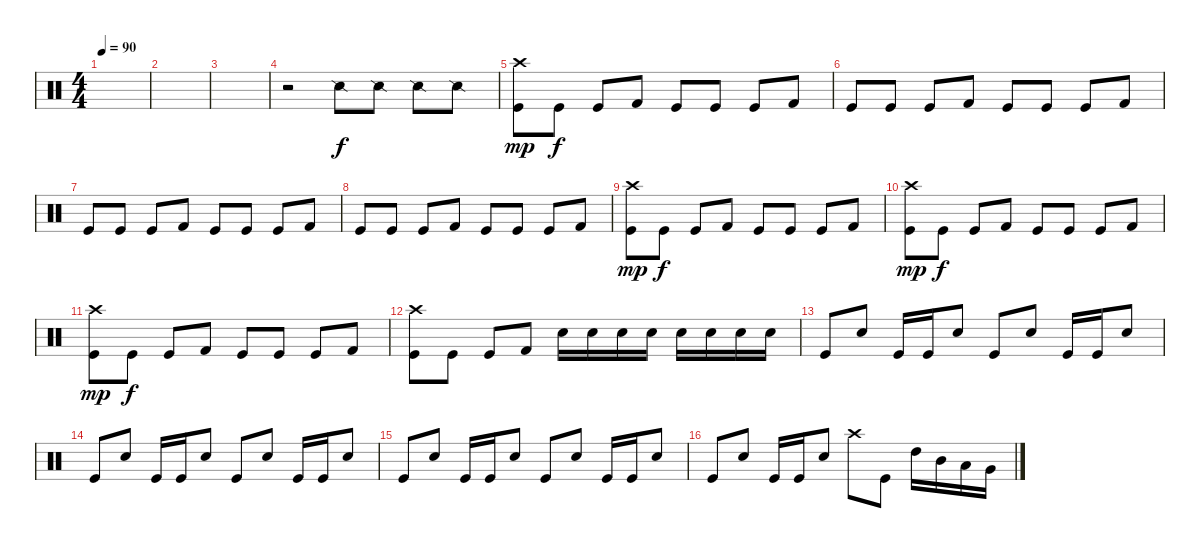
\track "" {instrument percussion}
\staff {score}
\articulation defaults
\ts (4 4)
\tempo 90
\clef neutral
\ks c
|
|
|
r.2 "Snare (side stick) 2".8 "Snare (side stick) 2".8 "Snare (side stick) 2".8 "Snare (side stick) 2".8 |
("Crash high (hit)" "Kick (hit)").8{dy mp} "Kick (hit)".8{dy f} "Kick (hit)".8 "Kick (hit) 2".8 "Kick (hit)".8 "Kick (hit)".8 "Kick (hit)".8 "Kick (hit) 2".8 |
"Kick (hit)".8 "Kick (hit)".8 "Kick (hit)".8 "Kick (hit) 2".8 "Kick (hit)".8 "Kick (hit)".8 "Kick (hit)".8 "Kick (hit) 2".8 |
"Kick (hit)".8 "Kick (hit)".8 "Kick (hit)".8 "Kick (hit) 2".8 "Kick (hit)".8 "Kick (hit)".8 "Kick (hit)".8 "Kick (hit) 2".8 |
"Kick (hit)".8 "Kick (hit)".8 "Kick (hit)".8 "Kick (hit) 2".8 "Kick (hit)".8 "Kick (hit)".8 "Kick (hit)".8 "Kick (hit) 2".8 |
("Crash high (hit)" "Kick (hit)").8{dy mp} "Kick (hit)".8{dy f} "Kick (hit)".8 "Kick (hit) 2".8 "Kick (hit)".8 "Kick (hit)".8 "Kick (hit)".8 "Kick (hit) 2".8 |
("Crash high (hit)" "Kick (hit)").8{dy mp} "Kick (hit)".8{dy f} "Kick (hit)".8 "Kick (hit) 2".8 "Kick (hit)".8 "Kick (hit)".8 "Kick (hit)".8 "Kick (hit) 2".8 |
("Crash high (hit)" "Kick (hit)").8{dy mp} "Kick (hit)".8{dy f} "Kick (hit)".8 "Kick (hit) 2".8 "Kick (hit)".8 "Kick (hit)".8 "Kick (hit)".8 "Kick (hit) 2".8 |
("Crash high (hit)" "Kick (hit)").8 "Kick (hit)".8 "Kick (hit)".8 "Kick (hit) 2".8 "Snare (hit) 2".16 "Snare (hit) 2".16 "Snare (hit) 2".16 "Snare (hit) 2".16 "Snare (hit) 2".16 "Snare (hit) 2".16 "Snare (hit) 2".16 "Snare (hit) 2".16 |
"Kick (hit)".8 "Snare (hit) 2".8 "Kick (hit)".16 "Kick (hit)".16 "Snare (hit) 2".8 "Kick (hit)".8 "Snare (hit) 2".8 "Kick (hit)".16 "Kick (hit)".16 "Snare (hit) 2".8 |
"Kick (hit)".8 "Snare (hit) 2".8 "Kick (hit)".16 "Kick (hit)".16 "Snare (hit) 2".8 "Kick (hit)".8 "Snare (hit) 2".8 "Kick (hit)".16 "Kick (hit)".16 "Snare (hit) 2".8 |
"Kick (hit)".8 "Snare (hit) 2".8 "Kick (hit)".16 "Kick (hit)".16 "Snare (hit) 2".8 "Kick (hit)".8 "Snare (hit) 2".8 "Kick (hit)".16 "Kick (hit)".16 "Snare (hit) 2".8 |
"Kick (hit)".8 "Snare (hit) 2".8 "Kick (hit)".16 "Kick (hit)".16 "Snare (hit) 2".8 "Crash high (hit)".8 "Kick (hit)".8 "High Tom (hit)".16 "Mid Tom (hit)".16 "Low Tom (hit)".16 "Very Low Tom (hit)".16
